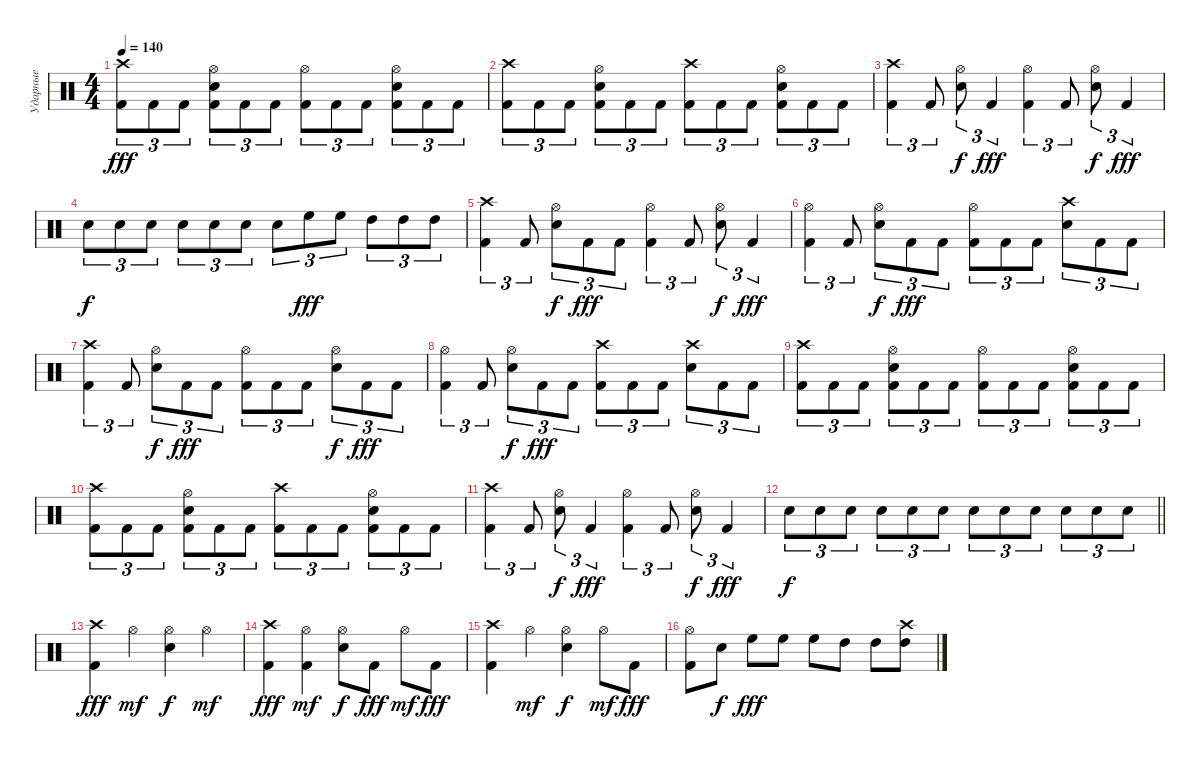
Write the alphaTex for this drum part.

\track ("Ударные" "Ударные") {instrument percussion}
\staff {score}
\articulation defaults
\ts (4 4)
\tempo 140
\clef neutral
\ks c
("Kick (hit) 2" "Crash high (hit)").8{tu (3 2) dy fff} "Kick (hit) 2".8{tu (3 2)} "Kick (hit) 2".8{tu (3 2)} ("Kick (hit) 2" "Snare (hit) 2" "Hi-Hat (open)").8{tu (3 2)} "Kick (hit) 2".8{tu (3 2)} "Kick (hit) 2".8{tu (3 2)} ("Kick (hit) 2" "Hi-Hat (open)").8{tu (3 2)} "Kick (hit) 2".8{tu (3 2)} "Kick (hit) 2".8{tu (3 2)} ("Kick (hit) 2" "Snare (hit) 2" "Hi-Hat (open)").8{tu (3 2)} "Kick (hit) 2".8{tu (3 2)} "Kick (hit) 2".8{tu (3 2)} |
("Kick (hit) 2" "Crash high (hit)").8{tu (3 2)} "Kick (hit) 2".8{tu (3 2)} "Kick (hit) 2".8{tu (3 2)} ("Kick (hit) 2" "Snare (hit) 2" "Hi-Hat (open)").8{tu (3 2)} "Kick (hit) 2".8{tu (3 2)} "Kick (hit) 2".8{tu (3 2)} ("Kick (hit) 2" "Crash high (hit)").8{tu (3 2)} "Kick (hit) 2".8{tu (3 2)} "Kick (hit) 2".8{tu (3 2)} ("Kick (hit) 2" "Snare (hit) 2" "Hi-Hat (open)").8{tu (3 2)} "Kick (hit) 2".8{tu (3 2)} "Kick (hit) 2".8{tu (3 2)} |
("Kick (hit) 2" "Crash high (hit)").4{tu (3 2)} "Kick (hit) 2".8{tu (3 2)} ("Snare (hit) 2" "Hi-Hat (open)").8{tu (3 2) dy f} "Kick (hit) 2".4{tu (3 2) dy fff} ("Kick (hit) 2" "Hi-Hat (open)").4{tu (3 2)} "Kick (hit) 2".8{tu (3 2)} ("Snare (hit) 2" "Hi-Hat (open)").8{tu (3 2) dy f} "Kick (hit) 2".4{tu (3 2) dy fff} |
"Snare (hit) 2".8{tu (3 2) dy f} "Electric Snare (hit)".8{tu (3 2)} "Electric Snare (hit)".8{tu (3 2)} "Electric Snare (hit)".8{tu (3 2)} "Snare (hit) 2".8{tu (3 2)} "Electric Snare (hit)".8{tu (3 2)} "Snare (hit) 2".8{tu (3 2)} "High Floor Tom (hit)".8{tu (3 2) dy fff} "High Floor Tom (hit)".8{tu (3 2)} "High Tom (hit)".8{tu (3 2)} "High Tom (hit)".8{tu (3 2)} "High Tom (hit)".8{tu (3 2)} |
("Kick (hit) 2" "Crash high (hit)").4{tu (3 2)} "Kick (hit) 2".8{tu (3 2)} ("Snare (hit) 2" "Hi-Hat (open)").8{tu (3 2) dy f} "Kick (hit) 2".8{tu (3 2) dy fff} "Kick (hit) 2".8{tu (3 2)} ("Kick (hit) 2" "Hi-Hat (open)").4{tu (3 2)} "Kick (hit) 2".8{tu (3 2)} ("Snare (hit) 2" "Hi-Hat (open)").8{tu (3 2) dy f} "Kick (hit) 2".4{tu (3 2) dy fff} |
("Kick (hit) 2" "Hi-Hat (open)").4{tu (3 2)} "Kick (hit) 2".8{tu (3 2)} ("Snare (hit) 2" "Hi-Hat (open)").8{tu (3 2) dy f} "Kick (hit) 2".8{tu (3 2) dy fff} "Kick (hit) 2".8{tu (3 2)} ("Kick (hit) 2" "Hi-Hat (open)").8{tu (3 2)} "Kick (hit) 2".8{tu (3 2)} "Kick (hit) 2".8{tu (3 2)} ("Snare (hit) 2" "Crash high (hit)").8{tu (3 2)} "Kick (hit) 2".8{tu (3 2)} "Kick (hit) 2".8{tu (3 2)} |
("Kick (hit) 2" "Crash high (hit)").4{tu (3 2)} "Kick (hit) 2".8{tu (3 2)} ("Snare (hit) 2" "Hi-Hat (open)").8{tu (3 2) dy f} "Kick (hit) 2".8{tu (3 2) dy fff} "Kick (hit) 2".8{tu (3 2)} ("Kick (hit) 2" "Hi-Hat (open)").8{tu (3 2)} "Kick (hit) 2".8{tu (3 2)} "Kick (hit) 2".8{tu (3 2)} ("Snare (hit) 2" "Hi-Hat (open)").8{tu (3 2) dy f} "Kick (hit) 2".8{tu (3 2) dy fff} "Kick (hit) 2".8{tu (3 2)} |
("Kick (hit) 2" "Hi-Hat (open)").4{tu (3 2)} "Kick (hit) 2".8{tu (3 2)} ("Snare (hit) 2" "Hi-Hat (open)").8{tu (3 2) dy f} "Kick (hit) 2".8{tu (3 2) dy fff} "Kick (hit) 2".8{tu (3 2)} ("Kick (hit) 2" "Crash high (hit)").8{tu (3 2)} "Kick (hit) 2".8{tu (3 2)} "Kick (hit) 2".8{tu (3 2)} ("Snare (hit) 2" "Crash high (hit)").8{tu (3 2)} "Kick (hit) 2".8{tu (3 2)} "Kick (hit) 2".8{tu (3 2)} |
("Kick (hit) 2" "Crash high (hit)").8{tu (3 2)} "Kick (hit) 2".8{tu (3 2)} "Kick (hit) 2".8{tu (3 2)} ("Kick (hit) 2" "Snare (hit) 2" "Hi-Hat (open)").8{tu (3 2)} "Kick (hit) 2".8{tu (3 2)} "Kick (hit) 2".8{tu (3 2)} ("Kick (hit) 2" "Hi-Hat (open)").8{tu (3 2)} "Kick (hit) 2".8{tu (3 2)} "Kick (hit) 2".8{tu (3 2)} ("Kick (hit) 2" "Snare (hit) 2" "Hi-Hat (open)").8{tu (3 2)} "Kick (hit) 2".8{tu (3 2)} "Kick (hit) 2".8{tu (3 2)} |
("Kick (hit) 2" "Crash high (hit)").8{tu (3 2)} "Kick (hit) 2".8{tu (3 2)} "Kick (hit) 2".8{tu (3 2)} ("Kick (hit) 2" "Snare (hit) 2" "Hi-Hat (open)").8{tu (3 2)} "Kick (hit) 2".8{tu (3 2)} "Kick (hit) 2".8{tu (3 2)} ("Kick (hit) 2" "Crash high (hit)").8{tu (3 2)} "Kick (hit) 2".8{tu (3 2)} "Kick (hit) 2".8{tu (3 2)} ("Kick (hit) 2" "Snare (hit) 2" "Hi-Hat (open)").8{tu (3 2)} "Kick (hit) 2".8{tu (3 2)} "Kick (hit) 2".8{tu (3 2)} |
("Kick (hit) 2" "Crash high (hit)").4{tu (3 2)} "Kick (hit) 2".8{tu (3 2)} ("Snare (hit) 2" "Hi-Hat (open)").8{tu (3 2) dy f} "Kick (hit) 2".4{tu (3 2) dy fff} ("Kick (hit) 2" "Hi-Hat (open)").4{tu (3 2)} "Kick (hit) 2".8{tu (3 2)} ("Snare (hit) 2" "Hi-Hat (open)").8{tu (3 2) dy f} "Kick (hit) 2".4{tu (3 2) dy fff} |
\barLineRight lightlight "Snare (hit) 2".8{tu (3 2) dy f} "Snare (hit) 2".8{tu (3 2)} "Snare (hit) 2".8{tu (3 2)} "Snare (hit) 2".8{tu (3 2)} "Snare (hit) 2".8{tu (3 2)} "Snare (hit) 2".8{tu (3 2)} "Snare (hit) 2".8{tu (3 2)} "Snare (hit) 2".8{tu (3 2)} "Snare (hit) 2".8{tu (3 2)} "Snare (hit) 2".8{tu (3 2)} "Snare (hit) 2".8{tu (3 2)} "Snare (hit) 2".8{tu (3 2)}
|
("Kick (hit) 2" "Crash high (hit)").4{dy fff} "Hi-Hat (open)".4{dy mf} ("Snare (hit) 2" "Hi-Hat (open)").4{dy f} "Hi-Hat (open)".4{dy mf} |
("Kick (hit) 2" "Crash high (hit)").4{dy fff} ("Kick (hit) 2" "Hi-Hat (open)").4{dy mf} ("Snare (hit) 2" "Hi-Hat (open)").8{dy f} "Kick (hit) 2".8{dy fff} "Hi-Hat (open)".8{dy mf} "Kick (hit) 2".8{dy fff} |
("Kick (hit) 2" "Crash high (hit)").4 "Hi-Hat (open)".4{dy mf} ("Snare (hit) 2" "Hi-Hat (open)").4{dy f} "Hi-Hat (open)".8{dy mf} "Kick (hit) 2".8{dy fff} |
("Kick (hit) 2" "Hi-Hat (open)").8 "Snare (hit) 2".8{dy f} "High Floor Tom (hit)".8{dy fff} "High Floor Tom (hit)".8 "High Floor Tom (hit)".8 "High Tom (hit)".8 "High Tom (hit)".8 ("High Tom (hit)" "Crash high (hit)").8
